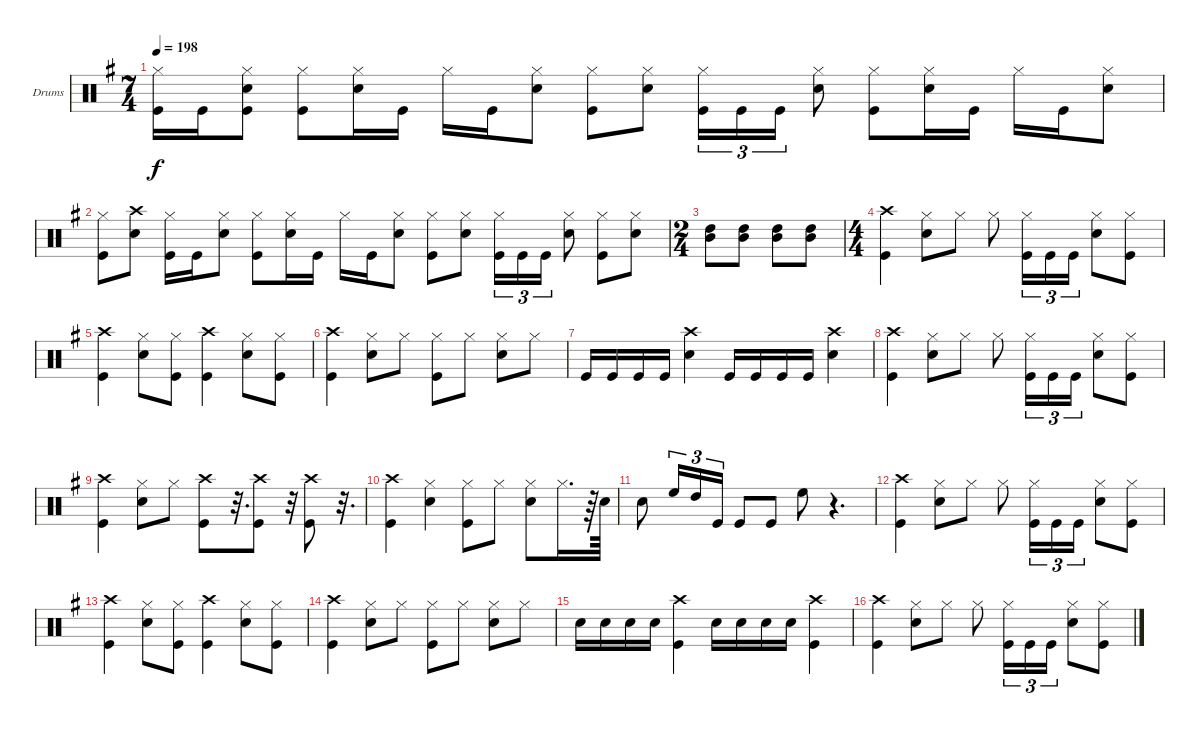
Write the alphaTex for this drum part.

\defaultSystemsLayout 4
\bracketExtendMode groupsimilarinstruments
\firstSystemTrackNameOrientation horizontal
\otherSystemsTrackNameOrientation horizontal
\track ("Drumkit" "Drums") {instrument percussion}
\staff {score}
\articulation defaults
\ts (7 4)
\tempo 198
\clef neutral
\ks g
("Hi-Hat (closed)" "Kick (hit)").16{dy f} "Kick (hit)".16 ("Snare (hit) 2" "Hi-Hat (closed)" "Kick (hit)").8 ("Hi-Hat (closed)" "Kick (hit)").8 ("Snare (hit) 2" "Hi-Hat (closed)").16 "Kick (hit)".16 "Hi-Hat (closed)".16 "Kick (hit)".16 ("Snare (hit) 2" "Hi-Hat (closed)").8 ("Hi-Hat (closed)" "Kick (hit)").8 ("Snare (hit) 2" "Hi-Hat (closed)").8 ("Hi-Hat (closed)" "Kick (hit)").16{tu (3 2)} "Kick (hit)".16{tu (3 2)} "Kick (hit)".16{tu (3 2)} ("Snare (hit) 2" "Hi-Hat (closed)").8 ("Hi-Hat (closed)" "Kick (hit)").8 ("Snare (hit) 2" "Hi-Hat (closed)").16 "Kick (hit)".16 "Hi-Hat (closed)".16 "Kick (hit)".16 ("Snare (hit) 2" "Hi-Hat (closed)").8 |
("Kick (hit)" "Hi-Hat (closed)").8 ("Snare (hit) 2" "Crash high (hit)").8 ("Hi-Hat (closed)" "Kick (hit)").16 "Kick (hit)".16 ("Snare (hit) 2" "Hi-Hat (closed)").8 ("Hi-Hat (closed)" "Kick (hit)").8 ("Snare (hit) 2" "Hi-Hat (closed)").16 "Kick (hit)".16 "Hi-Hat (closed)".16 "Kick (hit)".16 ("Snare (hit) 2" "Hi-Hat (closed)").8 ("Hi-Hat (closed)" "Kick (hit)").8 ("Snare (hit) 2" "Hi-Hat (closed)").8 ("Hi-Hat (closed)" "Kick (hit)").16{tu (3 2)} "Kick (hit)".16{tu (3 2)} "Kick (hit)".16{tu (3 2)} ("Snare (hit) 2" "Hi-Hat (closed)").8 ("Hi-Hat (closed)" "Kick (hit)").8 ("Snare (hit) 2" "Hi-Hat (closed)").8 |
\ts (2 4)
("High Tom (hit)" "Mid Tom (hit)").8 ("Mid Tom (hit)" "High Tom (hit)").8 ("High Tom (hit)" "Mid Tom (hit)").8 ("Mid Tom (hit)" "High Tom (hit)").8 |
\ts (4 4)
("Kick (hit)" "Crash high (hit)").4 ("Hi-Hat (closed)" "Snare (hit) 2").8 "Hi-Hat (closed)".8 "Hi-Hat (closed)".8 ("Hi-Hat (closed)" "Kick (hit)").16{tu (3 2)} "Kick (hit)".16{tu (3 2)} "Kick (hit)".16{tu (3 2)} ("Snare (hit) 2" "Hi-Hat (closed)").8 ("Hi-Hat (closed)" "Kick (hit)").8 |
("Kick (hit)" "Crash high (hit)").4 ("Hi-Hat (closed)" "Snare (hit) 2").8 ("Kick (hit)" "Hi-Hat (closed)").8 ("Crash high (hit)" "Kick (hit)").4 ("Hi-Hat (closed)" "Snare (hit) 2").8 ("Kick (hit)" "Hi-Hat (closed)").8 |
("Kick (hit)" "Crash high (hit)").4 ("Hi-Hat (closed)" "Snare (hit) 2").8 "Hi-Hat (closed)".8 ("Hi-Hat (closed)" "Kick (hit)").8 "Hi-Hat (closed)".8 ("Snare (hit) 2" "Hi-Hat (closed)").8 "Hi-Hat (closed)".8 |
"Kick (hit)".16 "Kick (hit)".16 "Kick (hit)".16 "Kick (hit)".16 ("Crash high (hit)" "Snare (hit) 2").4 "Kick (hit)".16 "Kick (hit)".16 "Kick (hit)".16 "Kick (hit)".16 ("Snare (hit) 2" "Crash high (hit)").4 |
("Kick (hit)" "Crash high (hit)").4 ("Snare (hit) 2" "Hi-Hat (closed)").8 "Hi-Hat (closed)".8 "Hi-Hat (closed)".8 ("Kick (hit)" "Hi-Hat (closed)").16{tu (3 2)} "Kick (hit)".16{tu (3 2)} "Kick (hit)".16{tu (3 2)} ("Snare (hit) 2" "Hi-Hat (closed)").8 ("Kick (hit)" "Hi-Hat (closed)").8 |
("Kick (hit)" "Crash high (hit)").4 ("Hi-Hat (closed)" "Snare (hit) 2").8 "Hi-Hat (closed)".8 ("Kick (hit)" "Crash high (hit)").8 r.32{d} ("Kick (hit)" "Crash high (hit)").8 r.32 ("Kick (hit)" "Crash high (hit)").8 r.32{d} |
("Kick (hit)" "Crash high (hit)").4 ("Hi-Hat (closed)" "Snare (hit) 2").4 ("Hi-Hat (closed)" "Kick (hit)").8 "Hi-Hat (closed)".8 ("Snare (hit) 2" "Hi-Hat (closed)").8 "Hi-Hat (closed)".16{d} r.64 "Snare (hit) 2".64 |
"Snare (hit) 2".8 "High Floor Tom (hit)".16{tu (3 2)} "High Tom (hit)".16{tu (3 2)} "Kick (hit)".16{tu (3 2)} "Kick (hit)".8 "Kick (hit)".8 "High Floor Tom (hit)".8 r.4{d} |
("Kick (hit)" "Crash high (hit)").4 ("Snare (hit) 2" "Hi-Hat (closed)").8 "Hi-Hat (closed)".8 "Hi-Hat (closed)".8 ("Kick (hit)" "Hi-Hat (closed)").16{tu (3 2)} "Kick (hit)".16{tu (3 2)} "Kick (hit)".16{tu (3 2)} ("Snare (hit) 2" "Hi-Hat (closed)").8 ("Kick (hit)" "Hi-Hat (closed)").8 |
("Kick (hit)" "Crash high (hit)").4 ("Hi-Hat (closed)" "Snare (hit) 2").8 ("Kick (hit)" "Hi-Hat (closed)").8 ("Crash high (hit)" "Kick (hit)").4 ("Hi-Hat (closed)" "Snare (hit) 2").8 ("Kick (hit)" "Hi-Hat (closed)").8 |
("Kick (hit)" "Crash high (hit)").4 ("Hi-Hat (closed)" "Snare (hit) 2").8 "Hi-Hat (closed)".8 ("Hi-Hat (closed)" "Kick (hit)").8 "Hi-Hat (closed)".8 ("Snare (hit) 2" "Hi-Hat (closed)").8 "Hi-Hat (closed)".8 |
"Snare (hit) 2".16 "Snare (hit) 2".16 "Snare (hit) 2".16 "Snare (hit) 2".16 ("Kick (hit)" "Crash high (hit)").4 "Snare (hit) 2".16 "Snare (hit) 2".16 "Snare (hit) 2".16 "Snare (hit) 2".16 ("Kick (hit)" "Crash high (hit)").4 |
("Kick (hit)" "Crash high (hit)").4 ("Snare (hit) 2" "Hi-Hat (closed)").8 "Hi-Hat (closed)".8 "Hi-Hat (closed)".8 ("Kick (hit)" "Hi-Hat (closed)").16{tu (3 2)} "Kick (hit)".16{tu (3 2)} "Kick (hit)".16{tu (3 2)} ("Snare (hit) 2" "Hi-Hat (closed)").8 ("Kick (hit)" "Hi-Hat (closed)").8
